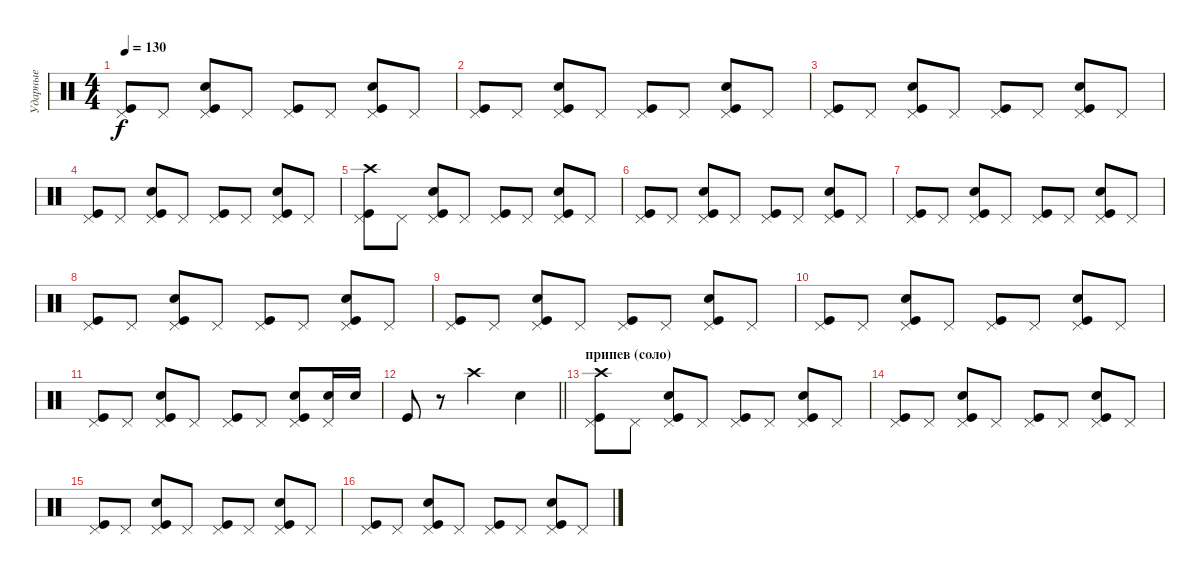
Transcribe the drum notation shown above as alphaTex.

\track ("Ударные" "Ударные") {instrument percussion}
\staff {score}
\articulation defaults
\ts (4 4)
\tempo 130
\clef neutral
\ks c
("Pedal Hi-Hat (hit)" "Kick (hit)").8{dy f} "Pedal Hi-Hat (hit)".8 ("Pedal Hi-Hat (hit)" "Kick (hit)" "Snare (hit) 2").8 "Pedal Hi-Hat (hit)".8 ("Pedal Hi-Hat (hit)" "Kick (hit)").8 "Pedal Hi-Hat (hit)".8 ("Pedal Hi-Hat (hit)" "Kick (hit)" "Snare (hit) 2").8 "Pedal Hi-Hat (hit)".8 |
("Pedal Hi-Hat (hit)" "Kick (hit)").8 "Pedal Hi-Hat (hit)".8 ("Pedal Hi-Hat (hit)" "Kick (hit)" "Snare (hit) 2").8 "Pedal Hi-Hat (hit)".8 ("Pedal Hi-Hat (hit)" "Kick (hit)").8 "Pedal Hi-Hat (hit)".8 ("Pedal Hi-Hat (hit)" "Kick (hit)" "Snare (hit) 2").8 "Pedal Hi-Hat (hit)".8 |
("Pedal Hi-Hat (hit)" "Kick (hit)").8 "Pedal Hi-Hat (hit)".8 ("Pedal Hi-Hat (hit)" "Kick (hit)" "Snare (hit) 2").8 "Pedal Hi-Hat (hit)".8 ("Pedal Hi-Hat (hit)" "Kick (hit)").8 "Pedal Hi-Hat (hit)".8 ("Pedal Hi-Hat (hit)" "Kick (hit)" "Snare (hit) 2").8 "Pedal Hi-Hat (hit)".8 |
("Pedal Hi-Hat (hit)" "Kick (hit)").8 "Pedal Hi-Hat (hit)".8 ("Pedal Hi-Hat (hit)" "Kick (hit)" "Snare (hit) 2").8 "Pedal Hi-Hat (hit)".8 ("Pedal Hi-Hat (hit)" "Kick (hit)").8 "Pedal Hi-Hat (hit)".8 ("Pedal Hi-Hat (hit)" "Kick (hit)" "Snare (hit) 2").8 "Pedal Hi-Hat (hit)".8 |
("Pedal Hi-Hat (hit)" "Kick (hit)" "Crash high (hit)").8 "Pedal Hi-Hat (hit)".8 ("Pedal Hi-Hat (hit)" "Kick (hit)" "Snare (hit) 2").8 "Pedal Hi-Hat (hit)".8 ("Pedal Hi-Hat (hit)" "Kick (hit)").8 "Pedal Hi-Hat (hit)".8 ("Pedal Hi-Hat (hit)" "Kick (hit)" "Snare (hit) 2").8 "Pedal Hi-Hat (hit)".8 |
("Pedal Hi-Hat (hit)" "Kick (hit)").8 "Pedal Hi-Hat (hit)".8 ("Pedal Hi-Hat (hit)" "Kick (hit)" "Snare (hit) 2").8 "Pedal Hi-Hat (hit)".8 ("Pedal Hi-Hat (hit)" "Kick (hit)").8 "Pedal Hi-Hat (hit)".8 ("Pedal Hi-Hat (hit)" "Kick (hit)" "Snare (hit) 2").8 "Pedal Hi-Hat (hit)".8 |
("Pedal Hi-Hat (hit)" "Kick (hit)").8 "Pedal Hi-Hat (hit)".8 ("Pedal Hi-Hat (hit)" "Kick (hit)" "Snare (hit) 2").8 "Pedal Hi-Hat (hit)".8 ("Pedal Hi-Hat (hit)" "Kick (hit)").8 "Pedal Hi-Hat (hit)".8 ("Pedal Hi-Hat (hit)" "Kick (hit)" "Snare (hit) 2").8 "Pedal Hi-Hat (hit)".8 |
("Pedal Hi-Hat (hit)" "Kick (hit)").8 "Pedal Hi-Hat (hit)".8 ("Pedal Hi-Hat (hit)" "Kick (hit)" "Snare (hit) 2").8 "Pedal Hi-Hat (hit)".8 ("Pedal Hi-Hat (hit)" "Kick (hit)").8 "Pedal Hi-Hat (hit)".8 ("Pedal Hi-Hat (hit)" "Kick (hit)" "Snare (hit) 2").8 "Pedal Hi-Hat (hit)".8 |
("Pedal Hi-Hat (hit)" "Kick (hit)").8 "Pedal Hi-Hat (hit)".8 ("Pedal Hi-Hat (hit)" "Kick (hit)" "Snare (hit) 2").8 "Pedal Hi-Hat (hit)".8 ("Pedal Hi-Hat (hit)" "Kick (hit)").8 "Pedal Hi-Hat (hit)".8 ("Pedal Hi-Hat (hit)" "Kick (hit)" "Snare (hit) 2").8 "Pedal Hi-Hat (hit)".8 |
("Pedal Hi-Hat (hit)" "Kick (hit)").8 "Pedal Hi-Hat (hit)".8 ("Pedal Hi-Hat (hit)" "Kick (hit)" "Snare (hit) 2").8 "Pedal Hi-Hat (hit)".8 ("Pedal Hi-Hat (hit)" "Kick (hit)").8 "Pedal Hi-Hat (hit)".8 ("Pedal Hi-Hat (hit)" "Kick (hit)" "Snare (hit) 2").8 "Pedal Hi-Hat (hit)".8 |
("Pedal Hi-Hat (hit)" "Kick (hit)").8 "Pedal Hi-Hat (hit)".8 ("Pedal Hi-Hat (hit)" "Kick (hit)" "Snare (hit) 2").8 "Pedal Hi-Hat (hit)".8 ("Pedal Hi-Hat (hit)" "Kick (hit)").8 "Pedal Hi-Hat (hit)".8 ("Pedal Hi-Hat (hit)" "Kick (hit)" "Snare (hit) 2").8 ("Pedal Hi-Hat (hit)" "Snare (hit) 2").16 "Snare (hit) 2".16 |
\barLineRight lightlight "Kick (hit)".8
r.8 "Crash high (hit)".2 "Snare (hit) 2".4 |
\section ("" "припев (соло)")
("Pedal Hi-Hat (hit)" "Kick (hit)" "Crash high (hit)").8 "Pedal Hi-Hat (hit)".8 ("Pedal Hi-Hat (hit)" "Kick (hit)" "Snare (hit) 2").8 "Pedal Hi-Hat (hit)".8 ("Pedal Hi-Hat (hit)" "Kick (hit)").8 "Pedal Hi-Hat (hit)".8 ("Pedal Hi-Hat (hit)" "Kick (hit)" "Snare (hit) 2").8 "Pedal Hi-Hat (hit)".8 |
("Pedal Hi-Hat (hit)" "Kick (hit)").8 "Pedal Hi-Hat (hit)".8 ("Pedal Hi-Hat (hit)" "Kick (hit)" "Snare (hit) 2").8 "Pedal Hi-Hat (hit)".8 ("Pedal Hi-Hat (hit)" "Kick (hit)").8 "Pedal Hi-Hat (hit)".8 ("Pedal Hi-Hat (hit)" "Kick (hit)" "Snare (hit) 2").8 "Pedal Hi-Hat (hit)".8 |
("Pedal Hi-Hat (hit)" "Kick (hit)").8 "Pedal Hi-Hat (hit)".8 ("Pedal Hi-Hat (hit)" "Kick (hit)" "Snare (hit) 2").8 "Pedal Hi-Hat (hit)".8 ("Pedal Hi-Hat (hit)" "Kick (hit)").8 "Pedal Hi-Hat (hit)".8 ("Pedal Hi-Hat (hit)" "Kick (hit)" "Snare (hit) 2").8 "Pedal Hi-Hat (hit)".8 |
("Pedal Hi-Hat (hit)" "Kick (hit)").8 "Pedal Hi-Hat (hit)".8 ("Pedal Hi-Hat (hit)" "Kick (hit)" "Snare (hit) 2").8 "Pedal Hi-Hat (hit)".8 ("Pedal Hi-Hat (hit)" "Kick (hit)").8 "Pedal Hi-Hat (hit)".8 ("Pedal Hi-Hat (hit)" "Kick (hit)" "Snare (hit) 2").8 "Pedal Hi-Hat (hit)".8
